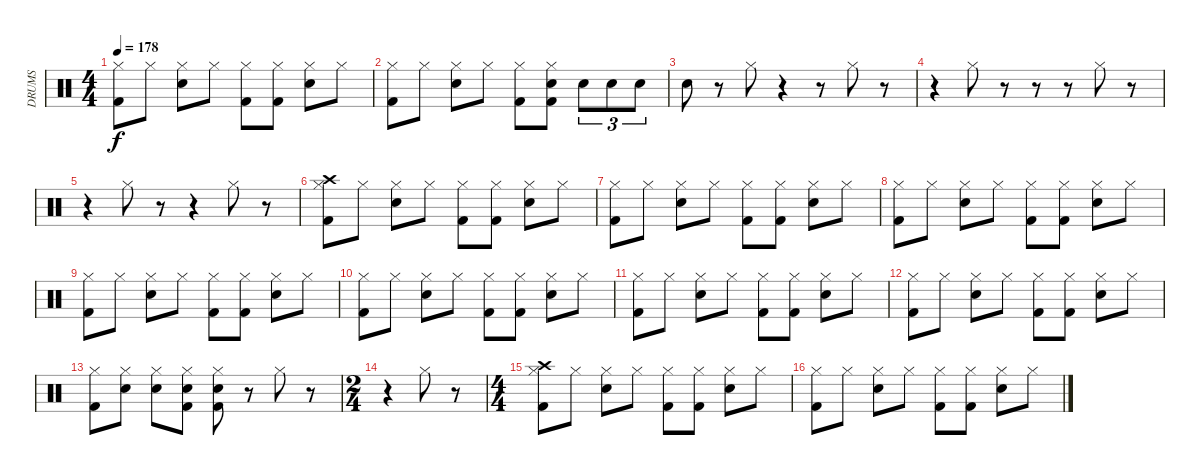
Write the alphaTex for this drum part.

\track ("DRUMS" "DRUMS") {instrument percussion}
\staff {score}
\articulation defaults
\ts (4 4)
\tempo 178
\clef neutral
\ks c
("Hi-Hat (closed)" "Kick (hit) 2").8{dy f} "Hi-Hat (closed)".8 ("Hi-Hat (closed)" "Snare (hit) 2").8 "Hi-Hat (closed)".8 ("Hi-Hat (closed)" "Kick (hit) 2").8 ("Hi-Hat (closed)" "Kick (hit) 2").8 ("Hi-Hat (closed)" "Snare (hit) 2").8 "Hi-Hat (closed)".8 |
("Hi-Hat (closed)" "Kick (hit) 2").8 "Hi-Hat (closed)".8 ("Hi-Hat (closed)" "Snare (hit) 2").8 "Hi-Hat (closed)".8 ("Hi-Hat (closed)" "Kick (hit) 2").8 ("Hi-Hat (closed)" "Snare (hit) 2" "Kick (hit) 2").8 "Snare (hit) 2".8{tu (3 2)} "Snare (hit) 2".8{tu (3 2)} "Snare (hit) 2".8{tu (3 2)} |
"Snare (hit) 2".8 r.8 "Hi-Hat (closed)".8 r.4 r.8 "Hi-Hat (closed)".8 r.8 |
r.4 "Hi-Hat (closed)".8 r.8 r.8 r.8 "Hi-Hat (closed)".8 r.8 |
r.4 "Hi-Hat (closed)".8 r.8 r.4 "Hi-Hat (closed)".8 r.8 |
("Hi-Hat (closed)" "Crash high (hit)" "Kick (hit) 2").8 "Hi-Hat (closed)".8 ("Hi-Hat (closed)" "Snare (hit) 2").8 "Hi-Hat (closed)".8 ("Hi-Hat (closed)" "Kick (hit) 2").8 ("Hi-Hat (closed)" "Kick (hit) 2").8 ("Hi-Hat (closed)" "Snare (hit) 2").8 "Hi-Hat (closed)".8 |
("Hi-Hat (closed)" "Kick (hit) 2").8 "Hi-Hat (closed)".8 ("Hi-Hat (closed)" "Snare (hit) 2").8 "Hi-Hat (closed)".8 ("Hi-Hat (closed)" "Kick (hit) 2").8 ("Hi-Hat (closed)" "Kick (hit) 2").8 ("Hi-Hat (closed)" "Snare (hit) 2").8 "Hi-Hat (closed)".8 |
("Hi-Hat (closed)" "Kick (hit) 2").8 "Hi-Hat (closed)".8 ("Hi-Hat (closed)" "Snare (hit) 2").8 "Hi-Hat (closed)".8 ("Hi-Hat (closed)" "Kick (hit) 2").8 ("Hi-Hat (closed)" "Kick (hit) 2").8 ("Hi-Hat (closed)" "Snare (hit) 2").8 "Hi-Hat (closed)".8 |
("Hi-Hat (closed)" "Kick (hit) 2").8 "Hi-Hat (closed)".8 ("Hi-Hat (closed)" "Snare (hit) 2").8 "Hi-Hat (closed)".8 ("Hi-Hat (closed)" "Kick (hit) 2").8 ("Hi-Hat (closed)" "Kick (hit) 2").8 ("Hi-Hat (closed)" "Snare (hit) 2").8 "Hi-Hat (closed)".8 |
("Hi-Hat (closed)" "Kick (hit) 2").8 "Hi-Hat (closed)".8 ("Hi-Hat (closed)" "Snare (hit) 2").8 "Hi-Hat (closed)".8 ("Hi-Hat (closed)" "Kick (hit) 2").8 ("Hi-Hat (closed)" "Kick (hit) 2").8 ("Hi-Hat (closed)" "Snare (hit) 2").8 "Hi-Hat (closed)".8 |
("Hi-Hat (closed)" "Kick (hit) 2").8 "Hi-Hat (closed)".8 ("Hi-Hat (closed)" "Snare (hit) 2").8 "Hi-Hat (closed)".8 ("Hi-Hat (closed)" "Kick (hit) 2").8 ("Hi-Hat (closed)" "Kick (hit) 2").8 ("Hi-Hat (closed)" "Snare (hit) 2").8 "Hi-Hat (closed)".8 |
("Hi-Hat (closed)" "Kick (hit) 2").8 "Hi-Hat (closed)".8 ("Hi-Hat (closed)" "Snare (hit) 2").8 "Hi-Hat (closed)".8 ("Hi-Hat (closed)" "Kick (hit) 2").8 ("Hi-Hat (closed)" "Kick (hit) 2").8 ("Hi-Hat (closed)" "Snare (hit) 2").8 "Hi-Hat (closed)".8 |
("Hi-Hat (closed)" "Kick (hit) 2").8 ("Hi-Hat (closed)" "Snare (hit) 2").8 ("Hi-Hat (closed)" "Snare (hit) 2").8 ("Hi-Hat (closed)" "Snare (hit) 2" "Kick (hit) 2").8 ("Hi-Hat (closed)" "Snare (hit) 2" "Kick (hit) 2").8 r.8 "Hi-Hat (closed)".8 r.8 |
\ts (2 4)
r.4 "Hi-Hat (closed)".8 r.8 |
\ts (4 4)
("Hi-Hat (closed)" "Crash high (hit)" "Kick (hit) 2").8 "Hi-Hat (closed)".8 ("Hi-Hat (closed)" "Snare (hit) 2").8 "Hi-Hat (closed)".8 ("Hi-Hat (closed)" "Kick (hit) 2").8 ("Hi-Hat (closed)" "Kick (hit) 2").8 ("Hi-Hat (closed)" "Snare (hit) 2").8 "Hi-Hat (closed)".8 |
("Hi-Hat (closed)" "Kick (hit) 2").8 "Hi-Hat (closed)".8 ("Hi-Hat (closed)" "Snare (hit) 2").8 "Hi-Hat (closed)".8 ("Hi-Hat (closed)" "Kick (hit) 2").8 ("Hi-Hat (closed)" "Kick (hit) 2").8 ("Hi-Hat (closed)" "Snare (hit) 2").8 "Hi-Hat (closed)".8
